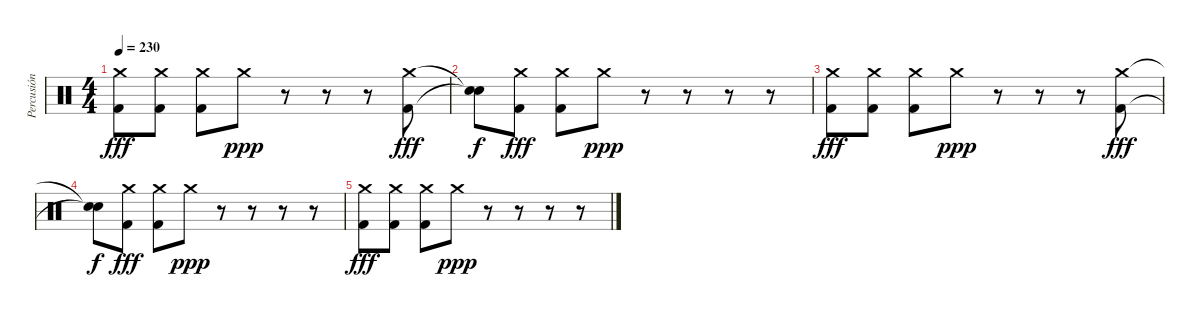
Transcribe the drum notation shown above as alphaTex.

\track ("Percusión" "Percusión") {instrument percussion}
\staff {score}
\articulation defaults
\ts (4 4)
\tempo 230
\clef neutral
\ks c
("Crash medium (hit)" "Kick (hit) 2").8{dy fff} ("Crash medium (hit)" "Kick (hit) 2").8 ("Crash medium (hit)" "Kick (hit) 2").8 "Crash medium (hit)".8{dy ppp} r.8 r.8 r.8 ("Crash medium (hit)" "Kick (hit) 2").8{dy fff} |
("Snare (hit)"{t} "Snare (hit)"{t}).8{dy f} ("Crash medium (hit)" "Kick (hit) 2").8{dy fff} ("Crash medium (hit)" "Kick (hit) 2").8 "Crash medium (hit)".8{dy ppp} r.8 r.8 r.8 r.8 |
("Crash medium (hit)" "Kick (hit) 2").8{dy fff} ("Crash medium (hit)" "Kick (hit) 2").8 ("Crash medium (hit)" "Kick (hit) 2").8 "Crash medium (hit)".8{dy ppp} r.8 r.8 r.8 ("Crash medium (hit)" "Kick (hit) 2").8{dy fff} |
("Snare (hit)"{t} "Snare (hit)"{t}).8{dy f} ("Crash medium (hit)" "Kick (hit) 2").8{dy fff} ("Crash medium (hit)" "Kick (hit) 2").8 "Crash medium (hit)".8{dy ppp} r.8 r.8 r.8 r.8 |
("Crash medium (hit)" "Kick (hit) 2").8{dy fff} ("Crash medium (hit)" "Kick (hit) 2").8 ("Crash medium (hit)" "Kick (hit) 2").8 "Crash medium (hit)".8{dy ppp} r.8 r.8 r.8 r.8
